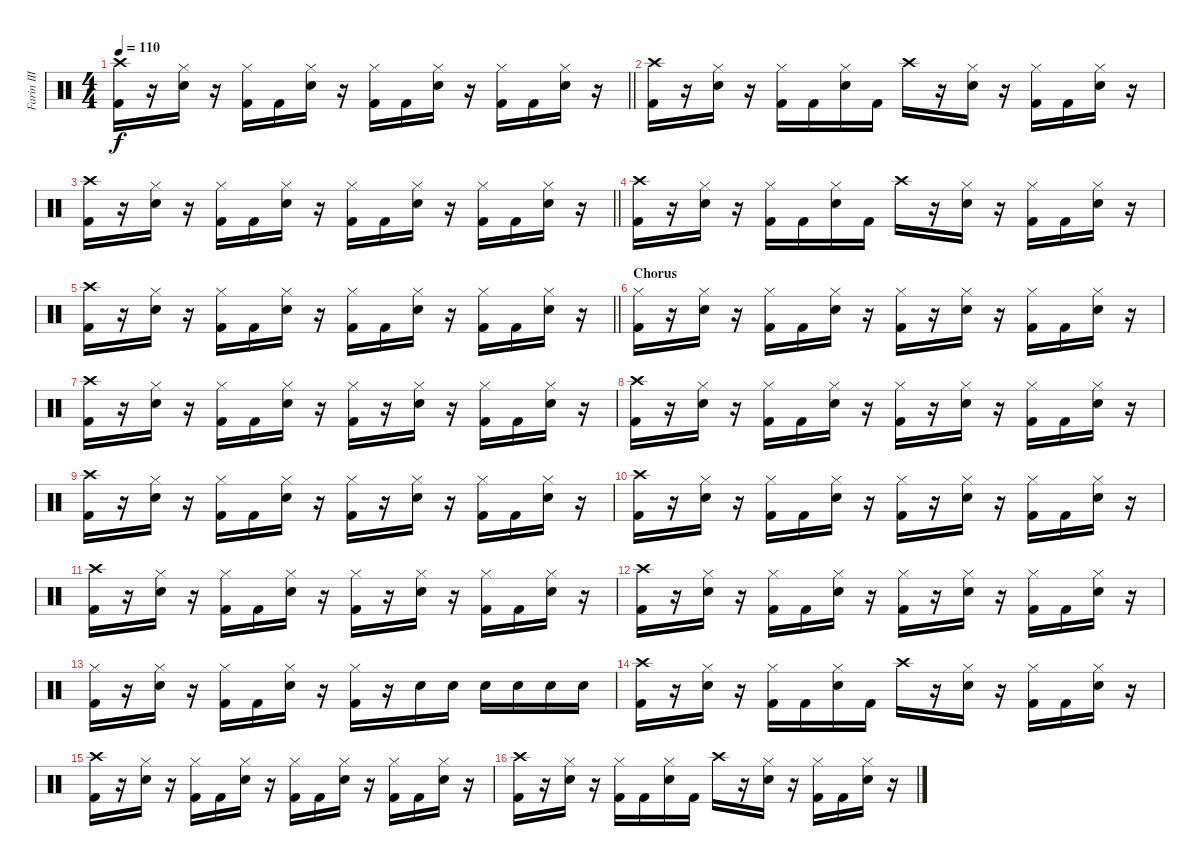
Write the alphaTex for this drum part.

\track ("Farin III" "Farin III") {instrument percussion}
\staff {score}
\articulation defaults
\ts (4 4)
\tempo 110
\clef neutral
\barLineRight lightlight
\ks c
("Crash high (hit)" "Kick (hit) 2").16{dy f} r.16 ("Hi-Hat (closed)" "Snare (hit) 2").16 r.16 ("Hi-Hat (closed)" "Kick (hit) 2").16 "Kick (hit) 2".16 ("Hi-Hat (closed)" "Snare (hit) 2").16 r.16 ("Hi-Hat (closed)" "Kick (hit) 2").16 "Kick (hit) 2".16 ("Hi-Hat (closed)" "Snare (hit) 2").16 r.16 ("Hi-Hat (closed)" "Kick (hit) 2").16 "Kick (hit) 2".16 ("Hi-Hat (closed)" "Snare (hit) 2").16 r.16 |
("Crash high (hit)" "Kick (hit) 2").16 r.16 ("Hi-Hat (closed)" "Snare (hit) 2").16 r.16 ("Hi-Hat (closed)" "Kick (hit) 2").16 "Kick (hit) 2".16 ("Hi-Hat (closed)" "Snare (hit) 2").16 "Kick (hit) 2".16 "Crash high (hit)".16 r.16 ("Hi-Hat (closed)" "Snare (hit) 2").16 r.16 ("Hi-Hat (closed)" "Kick (hit) 2").16 "Kick (hit) 2".16 ("Hi-Hat (closed)" "Snare (hit) 2").16 r.16 |
\barLineRight lightlight
("Crash high (hit)" "Kick (hit) 2").16 r.16 ("Hi-Hat (closed)" "Snare (hit) 2").16 r.16 ("Hi-Hat (closed)" "Kick (hit) 2").16 "Kick (hit) 2".16 ("Hi-Hat (closed)" "Snare (hit) 2").16 r.16 ("Hi-Hat (closed)" "Kick (hit) 2").16 "Kick (hit) 2".16 ("Hi-Hat (closed)" "Snare (hit) 2").16 r.16 ("Hi-Hat (closed)" "Kick (hit) 2").16 "Kick (hit) 2".16 ("Hi-Hat (closed)" "Snare (hit) 2").16 r.16 |
("Crash high (hit)" "Kick (hit) 2").16 r.16 ("Hi-Hat (closed)" "Snare (hit) 2").16 r.16 ("Hi-Hat (closed)" "Kick (hit) 2").16 "Kick (hit) 2".16 ("Hi-Hat (closed)" "Snare (hit) 2").16 "Kick (hit) 2".16 "Crash high (hit)".16 r.16 ("Hi-Hat (closed)" "Snare (hit) 2").16 r.16 ("Hi-Hat (closed)" "Kick (hit) 2").16 "Kick (hit) 2".16 ("Hi-Hat (closed)" "Snare (hit) 2").16 r.16 |
\barLineRight lightlight
("Crash high (hit)" "Kick (hit) 2").16 r.16 ("Hi-Hat (closed)" "Snare (hit) 2").16 r.16 ("Hi-Hat (closed)" "Kick (hit) 2").16 "Kick (hit) 2".16 ("Hi-Hat (closed)" "Snare (hit) 2").16 r.16 ("Hi-Hat (closed)" "Kick (hit) 2").16 "Kick (hit) 2".16 ("Hi-Hat (closed)" "Snare (hit) 2").16 r.16 ("Hi-Hat (closed)" "Kick (hit) 2").16 "Kick (hit) 2".16 ("Hi-Hat (closed)" "Snare (hit) 2").16 r.16 |
\section ("" "Chorus")
("Hi-Hat (closed)" "Kick (hit) 2").16 r.16 ("Hi-Hat (closed)" "Snare (hit) 2").16 r.16 ("Hi-Hat (closed)" "Kick (hit) 2").16 "Kick (hit) 2".16 ("Hi-Hat (closed)" "Snare (hit) 2").16 r.16 ("Hi-Hat (closed)" "Kick (hit) 2").16 r.16 ("Hi-Hat (closed)" "Snare (hit) 2").16 r.16 ("Hi-Hat (closed)" "Kick (hit) 2").16 "Kick (hit) 2".16 ("Hi-Hat (closed)" "Snare (hit) 2").16 r.16 |
("Crash high (hit)" "Kick (hit) 2").16 r.16 ("Hi-Hat (closed)" "Snare (hit) 2").16 r.16 ("Hi-Hat (closed)" "Kick (hit) 2").16 "Kick (hit) 2".16 ("Hi-Hat (closed)" "Snare (hit) 2").16 r.16 ("Hi-Hat (closed)" "Kick (hit) 2").16 r.16 ("Hi-Hat (closed)" "Snare (hit) 2").16 r.16 ("Hi-Hat (closed)" "Kick (hit) 2").16 "Kick (hit) 2".16 ("Hi-Hat (closed)" "Snare (hit) 2").16 r.16 |
("Crash high (hit)" "Kick (hit) 2").16 r.16 ("Hi-Hat (closed)" "Snare (hit) 2").16 r.16 ("Hi-Hat (closed)" "Kick (hit) 2").16 "Kick (hit) 2".16 ("Hi-Hat (closed)" "Snare (hit) 2").16 r.16 ("Hi-Hat (closed)" "Kick (hit) 2").16 r.16 ("Hi-Hat (closed)" "Snare (hit) 2").16 r.16 ("Hi-Hat (closed)" "Kick (hit) 2").16 "Kick (hit) 2".16 ("Hi-Hat (closed)" "Snare (hit) 2").16 r.16 |
("Crash high (hit)" "Kick (hit) 2").16 r.16 ("Hi-Hat (closed)" "Snare (hit) 2").16 r.16 ("Hi-Hat (closed)" "Kick (hit) 2").16 "Kick (hit) 2".16 ("Hi-Hat (closed)" "Snare (hit) 2").16 r.16 ("Hi-Hat (closed)" "Kick (hit) 2").16 r.16 ("Hi-Hat (closed)" "Snare (hit) 2").16 r.16 ("Hi-Hat (closed)" "Kick (hit) 2").16 "Kick (hit) 2".16 ("Hi-Hat (closed)" "Snare (hit) 2").16 r.16 |
("Crash high (hit)" "Kick (hit) 2").16 r.16 ("Hi-Hat (closed)" "Snare (hit) 2").16 r.16 ("Hi-Hat (closed)" "Kick (hit) 2").16 "Kick (hit) 2".16 ("Hi-Hat (closed)" "Snare (hit) 2").16 r.16 ("Hi-Hat (closed)" "Kick (hit) 2").16 r.16 ("Hi-Hat (closed)" "Snare (hit) 2").16 r.16 ("Hi-Hat (closed)" "Kick (hit) 2").16 "Kick (hit) 2".16 ("Hi-Hat (closed)" "Snare (hit) 2").16 r.16 |
("Crash high (hit)" "Kick (hit) 2").16 r.16 ("Hi-Hat (closed)" "Snare (hit) 2").16 r.16 ("Hi-Hat (closed)" "Kick (hit) 2").16 "Kick (hit) 2".16 ("Hi-Hat (closed)" "Snare (hit) 2").16 r.16 ("Hi-Hat (closed)" "Kick (hit) 2").16 r.16 ("Hi-Hat (closed)" "Snare (hit) 2").16 r.16 ("Hi-Hat (closed)" "Kick (hit) 2").16 "Kick (hit) 2".16 ("Hi-Hat (closed)" "Snare (hit) 2").16 r.16 |
("Crash high (hit)" "Kick (hit) 2").16 r.16 ("Hi-Hat (closed)" "Snare (hit) 2").16 r.16 ("Hi-Hat (closed)" "Kick (hit) 2").16 "Kick (hit) 2".16 ("Hi-Hat (closed)" "Snare (hit) 2").16 r.16 ("Hi-Hat (closed)" "Kick (hit) 2").16 r.16 ("Hi-Hat (closed)" "Snare (hit) 2").16 r.16 ("Hi-Hat (closed)" "Kick (hit) 2").16 "Kick (hit) 2".16 ("Hi-Hat (closed)" "Snare (hit) 2").16 r.16 |
("Hi-Hat (closed)" "Kick (hit) 2").16 r.16 ("Hi-Hat (closed)" "Snare (hit) 2").16 r.16 ("Hi-Hat (closed)" "Kick (hit) 2").16 "Kick (hit) 2".16 ("Hi-Hat (closed)" "Snare (hit) 2").16 r.16 ("Hi-Hat (closed)" "Kick (hit) 2").16 r.16 "Snare (hit) 2".16 "Snare (hit) 2".16 "Snare (hit) 2".16 "Snare (hit) 2".16 "Snare (hit) 2".16 "Snare (hit) 2".16 |
("Crash high (hit)" "Kick (hit) 2").16 r.16 ("Hi-Hat (closed)" "Snare (hit) 2").16 r.16 ("Hi-Hat (closed)" "Kick (hit) 2").16 "Kick (hit) 2".16 ("Hi-Hat (closed)" "Snare (hit) 2").16 "Kick (hit) 2".16 "Crash high (hit)".16 r.16 ("Hi-Hat (closed)" "Snare (hit) 2").16 r.16 ("Hi-Hat (closed)" "Kick (hit) 2").16 "Kick (hit) 2".16 ("Hi-Hat (closed)" "Snare (hit) 2").16 r.16 |
("Crash high (hit)" "Kick (hit) 2").16 r.16 ("Hi-Hat (closed)" "Snare (hit) 2").16 r.16 ("Hi-Hat (closed)" "Kick (hit) 2").16 "Kick (hit) 2".16 ("Hi-Hat (closed)" "Snare (hit) 2").16 r.16 ("Hi-Hat (closed)" "Kick (hit) 2").16 "Kick (hit) 2".16 ("Hi-Hat (closed)" "Snare (hit) 2").16 r.16 ("Hi-Hat (closed)" "Kick (hit) 2").16 "Kick (hit) 2".16 ("Hi-Hat (closed)" "Snare (hit) 2").16 r.16 |
("Crash high (hit)" "Kick (hit) 2").16 r.16 ("Hi-Hat (closed)" "Snare (hit) 2").16 r.16 ("Hi-Hat (closed)" "Kick (hit) 2").16 "Kick (hit) 2".16 ("Hi-Hat (closed)" "Snare (hit) 2").16 "Kick (hit) 2".16 "Crash high (hit)".16 r.16 ("Hi-Hat (closed)" "Snare (hit) 2").16 r.16 ("Hi-Hat (closed)" "Kick (hit) 2").16 "Kick (hit) 2".16 ("Hi-Hat (closed)" "Snare (hit) 2").16 r.16
